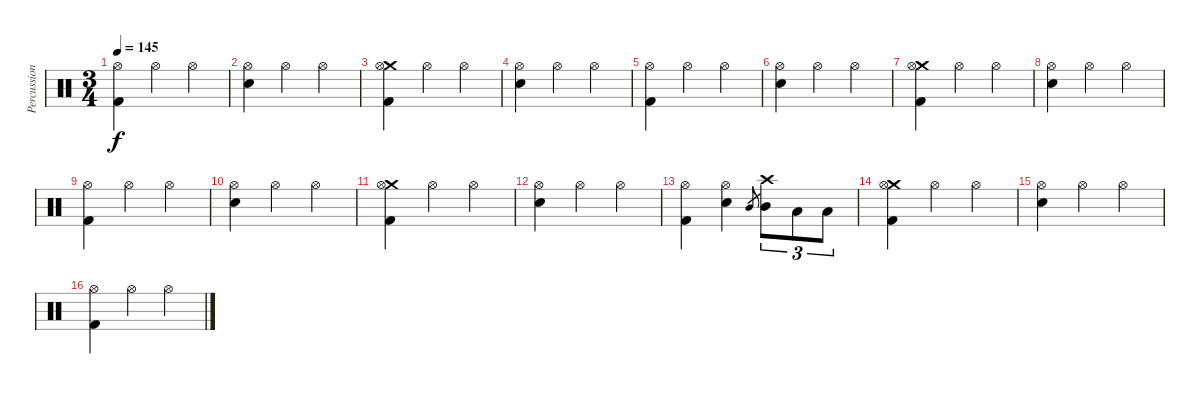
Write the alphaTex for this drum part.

\track ("Percussion" "Percussion") {instrument percussion}
\staff {score}
\articulation defaults
\ts (3 4)
\tempo 145
\clef neutral
\ks c
("Hi-Hat (open)" "Kick (hit) 2").4{dy f} "Hi-Hat (open)".4 "Hi-Hat (open)".4 |
("Hi-Hat (open)" "Electric Snare (hit)").4 "Hi-Hat (open)".4 "Hi-Hat (open)".4 |
("Crash medium (hit)" "Hi-Hat (open)" "Kick (hit) 2").4 "Hi-Hat (open)".4 "Hi-Hat (open)".4 |
("Hi-Hat (open)" "Electric Snare (hit)").4 "Hi-Hat (open)".4 "Hi-Hat (open)".4 |
("Hi-Hat (open)" "Kick (hit) 2").4 "Hi-Hat (open)".4 "Hi-Hat (open)".4 |
("Hi-Hat (open)" "Electric Snare (hit)").4 "Hi-Hat (open)".4 "Hi-Hat (open)".4 |
("Crash medium (hit)" "Hi-Hat (open)" "Kick (hit) 2").4 "Hi-Hat (open)".4 "Hi-Hat (open)".4 |
("Hi-Hat (open)" "Electric Snare (hit)").4 "Hi-Hat (open)".4 "Hi-Hat (open)".4 |
("Hi-Hat (open)" "Kick (hit) 2").4 "Hi-Hat (open)".4 "Hi-Hat (open)".4 |
("Hi-Hat (open)" "Electric Snare (hit)").4 "Hi-Hat (open)".4 "Hi-Hat (open)".4 |
("Crash medium (hit)" "Hi-Hat (open)" "Kick (hit) 2").4 "Hi-Hat (open)".4 "Hi-Hat (open)".4 |
("Hi-Hat (open)" "Electric Snare (hit)").4 "Hi-Hat (open)".4 "Hi-Hat (open)".4 |
("Hi-Hat (open)" "Kick (hit) 2").4 ("Hi-Hat (open)" "Electric Snare (hit)").4 "Mid Tom (hit)".8{gr} ("Crash high (hit)" "Mid Tom (hit)").8{tu (3 2)} "Low Tom (hit)".8{tu (3 2)} "Low Floor Tom (hit)".8{tu (3 2)} |
("Crash medium (hit)" "Hi-Hat (open)" "Kick (hit) 2").4 "Hi-Hat (open)".4 "Hi-Hat (open)".4 |
("Hi-Hat (open)" "Electric Snare (hit)").4 "Hi-Hat (open)".4 "Hi-Hat (open)".4 |
("Hi-Hat (open)" "Kick (hit) 2").4 "Hi-Hat (open)".4 "Hi-Hat (open)".4
